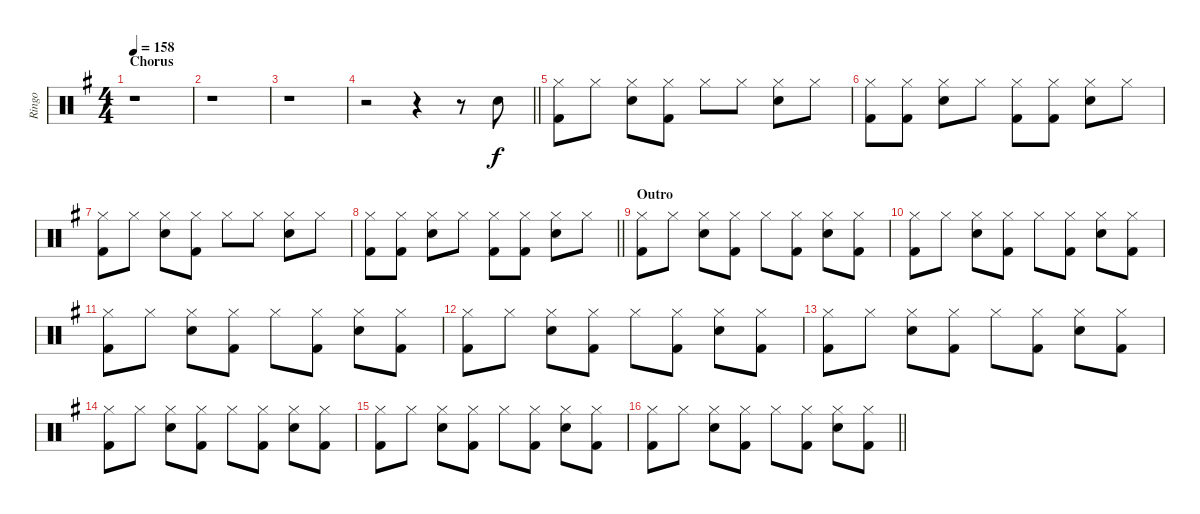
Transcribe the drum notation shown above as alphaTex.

\track ("Ringo" "Ringo") {instrument percussion}
\staff {score}
\articulation defaults
\ts (4 4)
\section ("" "Chorus")
\tempo 158
\clef neutral
\ks g
r.1{dy f} |
r.1 |
r.1 |
\barLineRight lightlight
r.2 r.4 r.8 "Electric Snare (hit)".8 |
\section ("" "")
("Hi-Hat (closed)" "Kick (hit) 2").8 "Hi-Hat (closed)".8 ("Hi-Hat (closed)" "Electric Snare (hit)").8 ("Hi-Hat (closed)" "Kick (hit) 2").8 "Hi-Hat (closed)".8 "Hi-Hat (closed)".8 ("Hi-Hat (closed)" "Electric Snare (hit)").8 "Hi-Hat (closed)".8 |
("Hi-Hat (closed)" "Kick (hit) 2").8 ("Hi-Hat (closed)" "Kick (hit) 2").8 ("Hi-Hat (closed)" "Electric Snare (hit)").8 "Hi-Hat (closed)".8 ("Hi-Hat (closed)" "Kick (hit) 2").8 ("Hi-Hat (closed)" "Kick (hit) 2").8 ("Hi-Hat (closed)" "Electric Snare (hit)").8 "Hi-Hat (closed)".8 |
("Hi-Hat (closed)" "Kick (hit) 2").8 "Hi-Hat (closed)".8 ("Hi-Hat (closed)" "Electric Snare (hit)").8 ("Hi-Hat (closed)" "Kick (hit) 2").8 "Hi-Hat (closed)".8 "Hi-Hat (closed)".8 ("Hi-Hat (closed)" "Electric Snare (hit)").8 "Hi-Hat (closed)".8 |
\barLineRight lightlight
("Hi-Hat (closed)" "Kick (hit) 2").8 ("Hi-Hat (closed)" "Kick (hit) 2").8 ("Hi-Hat (closed)" "Electric Snare (hit)").8 "Hi-Hat (closed)".8 ("Hi-Hat (closed)" "Kick (hit) 2").8 ("Hi-Hat (closed)" "Kick (hit) 2").8 ("Hi-Hat (closed)" "Electric Snare (hit)").8 "Hi-Hat (closed)".8 |
\section ("" "Outro")
("Hi-Hat (closed)" "Kick (hit) 2").8 "Hi-Hat (closed)".8 ("Hi-Hat (closed)" "Electric Snare (hit)").8 ("Hi-Hat (closed)" "Kick (hit) 2").8 "Hi-Hat (closed)".8 ("Hi-Hat (closed)" "Kick (hit) 2").8 ("Hi-Hat (closed)" "Electric Snare (hit)").8 ("Hi-Hat (closed)" "Kick (hit) 2").8 |
("Hi-Hat (closed)" "Kick (hit) 2").8 "Hi-Hat (closed)".8 ("Hi-Hat (closed)" "Electric Snare (hit)").8 ("Hi-Hat (closed)" "Kick (hit) 2").8 "Hi-Hat (closed)".8 ("Hi-Hat (closed)" "Kick (hit) 2").8 ("Hi-Hat (closed)" "Electric Snare (hit)").8 ("Hi-Hat (closed)" "Kick (hit) 2").8 |
("Hi-Hat (closed)" "Kick (hit) 2").8 "Hi-Hat (closed)".8 ("Hi-Hat (closed)" "Electric Snare (hit)").8 ("Hi-Hat (closed)" "Kick (hit) 2").8 "Hi-Hat (closed)".8 ("Hi-Hat (closed)" "Kick (hit) 2").8 ("Hi-Hat (closed)" "Electric Snare (hit)").8 ("Hi-Hat (closed)" "Kick (hit) 2").8 |
("Hi-Hat (closed)" "Kick (hit) 2").8 "Hi-Hat (closed)".8 ("Hi-Hat (closed)" "Electric Snare (hit)").8 ("Hi-Hat (closed)" "Kick (hit) 2").8 "Hi-Hat (closed)".8 ("Hi-Hat (closed)" "Kick (hit) 2").8 ("Hi-Hat (closed)" "Electric Snare (hit)").8 ("Hi-Hat (closed)" "Kick (hit) 2").8 |
("Hi-Hat (closed)" "Kick (hit) 2").8 "Hi-Hat (closed)".8 ("Hi-Hat (closed)" "Electric Snare (hit)").8 ("Hi-Hat (closed)" "Kick (hit) 2").8 "Hi-Hat (closed)".8 ("Hi-Hat (closed)" "Kick (hit) 2").8 ("Hi-Hat (closed)" "Electric Snare (hit)").8 ("Hi-Hat (closed)" "Kick (hit) 2").8 |
("Hi-Hat (closed)" "Kick (hit) 2").8 "Hi-Hat (closed)".8 ("Hi-Hat (closed)" "Electric Snare (hit)").8 ("Hi-Hat (closed)" "Kick (hit) 2").8 "Hi-Hat (closed)".8 ("Hi-Hat (closed)" "Kick (hit) 2").8 ("Hi-Hat (closed)" "Electric Snare (hit)").8 ("Hi-Hat (closed)" "Kick (hit) 2").8 |
("Hi-Hat (closed)" "Kick (hit) 2").8 "Hi-Hat (closed)".8 ("Hi-Hat (closed)" "Electric Snare (hit)").8 ("Hi-Hat (closed)" "Kick (hit) 2").8 "Hi-Hat (closed)".8 ("Hi-Hat (closed)" "Kick (hit) 2").8 ("Hi-Hat (closed)" "Electric Snare (hit)").8 ("Hi-Hat (closed)" "Kick (hit) 2").8 |
\barLineRight lightlight
("Hi-Hat (closed)" "Kick (hit) 2").8 "Hi-Hat (closed)".8 ("Hi-Hat (closed)" "Electric Snare (hit)").8 ("Hi-Hat (closed)" "Kick (hit) 2").8 "Hi-Hat (closed)".8 ("Hi-Hat (closed)" "Kick (hit) 2").8 ("Hi-Hat (closed)" "Electric Snare (hit)").8 ("Hi-Hat (closed)" "Kick (hit) 2").8
